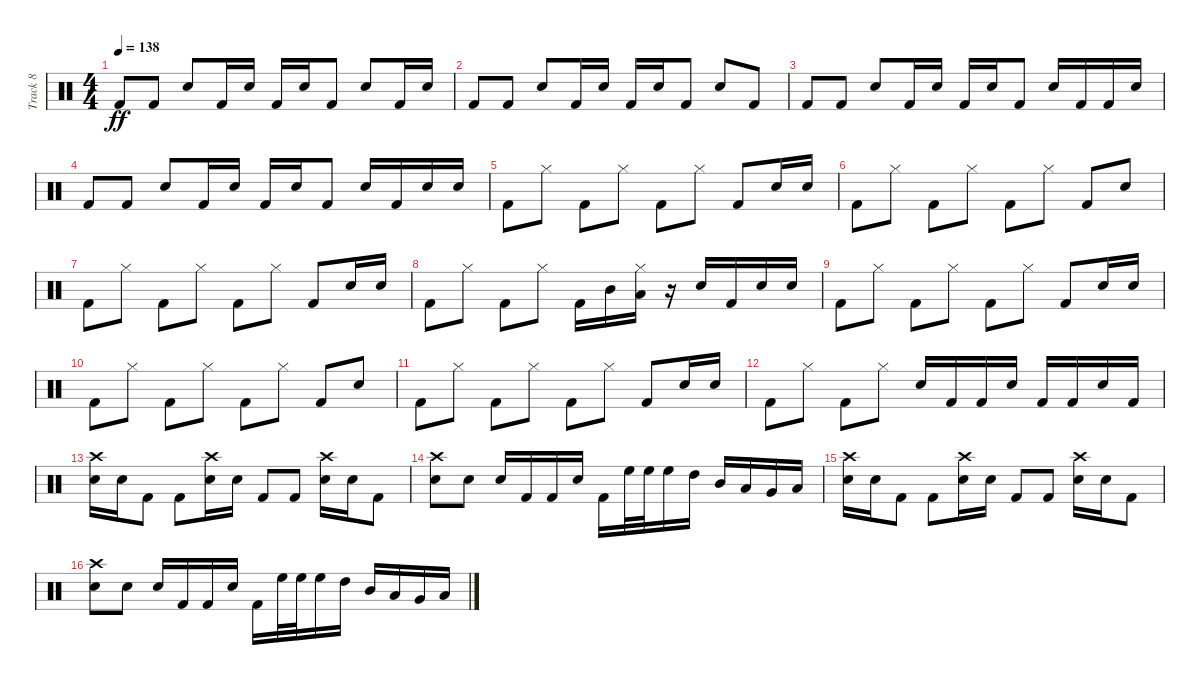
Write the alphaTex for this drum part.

\track ("Track 8" "Track 8") {instrument percussion}
\staff {score}
\articulation defaults
\ts (4 4)
\tempo 138
\clef neutral
\ks c "Kick (hit) 2".8{dy ff} "Kick (hit) 2".8 "Snare (hit) 2".8 "Kick (hit) 2".16 "Snare (hit) 2".16 "Kick (hit) 2".16 "Snare (hit) 2".16 "Kick (hit) 2".8 "Snare (hit) 2".8 "Kick (hit) 2".16 "Snare (hit) 2".16
|
"Kick (hit) 2".8 "Kick (hit) 2".8 "Snare (hit) 2".8 "Kick (hit) 2".16 "Snare (hit) 2".16 "Kick (hit) 2".16 "Snare (hit) 2".16 "Kick (hit) 2".8 "Snare (hit) 2".8 "Kick (hit) 2".8 |
"Kick (hit) 2".8 "Kick (hit) 2".8 "Snare (hit) 2".8 "Kick (hit) 2".16 "Snare (hit) 2".16 "Kick (hit) 2".16 "Snare (hit) 2".16 "Kick (hit) 2".8 "Snare (hit) 2".16 "Kick (hit) 2".16 "Kick (hit) 2".16 "Snare (hit) 2".16 |
"Kick (hit) 2".8 "Kick (hit) 2".8 "Snare (hit) 2".8 "Kick (hit) 2".16 "Snare (hit) 2".16 "Kick (hit) 2".16 "Snare (hit) 2".16 "Kick (hit) 2".8 "Snare (hit) 2".16 "Kick (hit) 2".16 "Snare (hit) 2".16 "Snare (hit) 2".16 |
"Kick (hit) 2".8 "Hi-Hat (closed)".8 "Kick (hit) 2".8 "Hi-Hat (closed)".8 "Kick (hit) 2".8 "Hi-Hat (closed)".8 "Kick (hit) 2".8 "Snare (hit) 2".16 "Snare (hit) 2".16 |
"Kick (hit) 2".8 "Hi-Hat (closed)".8 "Kick (hit) 2".8 "Hi-Hat (closed)".8 "Kick (hit) 2".8 "Hi-Hat (closed)".8 "Kick (hit) 2".8 "Snare (hit) 2".8 |
"Kick (hit) 2".8 "Hi-Hat (closed)".8 "Kick (hit) 2".8 "Hi-Hat (closed)".8 "Kick (hit) 2".8 "Hi-Hat (closed)".8 "Kick (hit) 2".8 "Snare (hit) 2".16 "Snare (hit) 2".16 |
"Kick (hit) 2".8 "Hi-Hat (closed)".8 "Kick (hit) 2".8 "Hi-Hat (closed)".8 "Kick (hit) 2".16 "Mid Tom (hit)".16 ("Hi-Hat (closed)" "Low Tom (hit)").16 r.16 "Snare (hit) 2".16 "Kick (hit) 2".16 "Snare (hit) 2".16 "Snare (hit) 2".16 |
"Kick (hit) 2".8 "Hi-Hat (closed)".8 "Kick (hit) 2".8 "Hi-Hat (closed)".8 "Kick (hit) 2".8 "Hi-Hat (closed)".8 "Kick (hit) 2".8 "Snare (hit) 2".16 "Snare (hit) 2".16 |
"Kick (hit) 2".8 "Hi-Hat (closed)".8 "Kick (hit) 2".8 "Hi-Hat (closed)".8 "Kick (hit) 2".8 "Hi-Hat (closed)".8 "Kick (hit) 2".8 "Snare (hit) 2".8 |
"Kick (hit) 2".8 "Hi-Hat (closed)".8 "Kick (hit) 2".8 "Hi-Hat (closed)".8 "Kick (hit) 2".8 "Hi-Hat (closed)".8 "Kick (hit) 2".8 "Snare (hit) 2".16 "Snare (hit) 2".16 |
"Kick (hit) 2".8 "Hi-Hat (closed)".8 "Kick (hit) 2".8 "Hi-Hat (closed)".8 "Snare (hit) 2".16 "Kick (hit) 2".16 "Kick (hit) 2".16 "Snare (hit) 2".16 "Kick (hit) 2".16 "Kick (hit) 2".16 "Snare (hit) 2".16 "Kick (hit) 2".16 |
("Snare (hit) 2" "Crash high (hit)").16 "Snare (hit) 2".16 "Kick (hit) 2".8 "Kick (hit) 2".8 ("Snare (hit) 2" "Crash high (hit)").16 "Snare (hit) 2".16 "Kick (hit) 2".8 "Kick (hit) 2".8 ("Snare (hit) 2" "Crash high (hit)").16 "Snare (hit) 2".16 "Kick (hit) 2".8 |
("Snare (hit) 2" "Crash high (hit)").8 "Snare (hit) 2".8 "Snare (hit) 2".16 "Kick (hit) 2".16 "Kick (hit) 2".16 "Snare (hit) 2".16 "Kick (hit) 2".16 "High Floor Tom (hit)".32 "High Floor Tom (hit)".32 "High Floor Tom (hit)".16 "High Tom (hit)".16 "Mid Tom (hit)".16 "Low Tom (hit)".16 "Very Low Tom (hit)".16 "Low Floor Tom (hit)".16 |
("Snare (hit) 2" "Crash high (hit)").16 "Snare (hit) 2".16 "Kick (hit) 2".8 "Kick (hit) 2".8 ("Snare (hit) 2" "Crash high (hit)").16 "Snare (hit) 2".16 "Kick (hit) 2".8 "Kick (hit) 2".8 ("Snare (hit) 2" "Crash high (hit)").16 "Snare (hit) 2".16 "Kick (hit) 2".8 |
("Snare (hit) 2" "Crash high (hit)").8 "Snare (hit) 2".8 "Snare (hit) 2".16 "Kick (hit) 2".16 "Kick (hit) 2".16 "Snare (hit) 2".16 "Kick (hit) 2".16 "High Floor Tom (hit)".32 "High Floor Tom (hit)".32 "High Floor Tom (hit)".16 "High Tom (hit)".16 "Mid Tom (hit)".16 "Low Tom (hit)".16 "Very Low Tom (hit)".16 "Low Floor Tom (hit)".16
